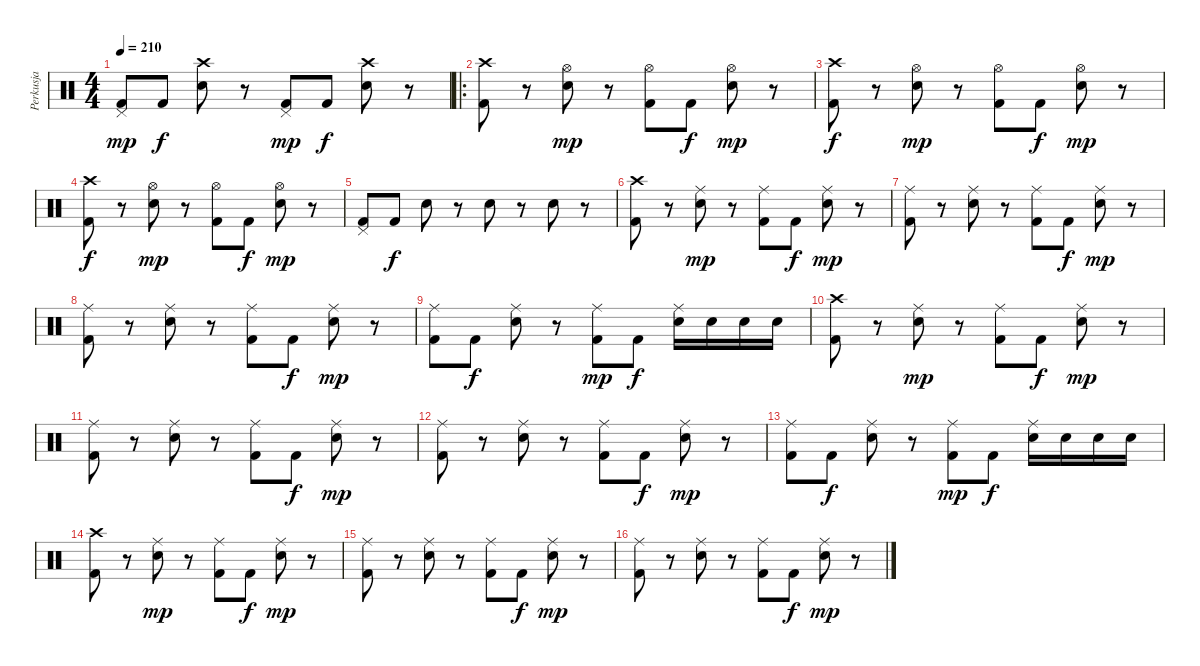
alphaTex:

\track ("Perkusja" "Perkusja") {instrument percussion}
\staff {score}
\articulation defaults
\ts (4 4)
\tempo 210
\clef neutral
\ks c
("Pedal Hi-Hat (hit)" "Kick (hit) 2").8{dy mp} "Kick (hit) 2".8{dy f} ("Crash high (hit)" "Snare (hit) 2").8 r.8 ("Pedal Hi-Hat (hit)" "Kick (hit) 2").8{dy mp} "Kick (hit) 2".8{dy f} ("Crash high (hit)" "Snare (hit) 2").8 r.8 |
\ro
("Crash high (hit)" "Kick (hit) 2").8 r.8 ("Hi-Hat (open)" "Snare (hit) 2").8{dy mp} r.8 ("Hi-Hat (open)" "Kick (hit) 2").8 "Kick (hit) 2".8{dy f} ("Hi-Hat (open)" "Snare (hit) 2").8{dy mp} r.8 |
("Crash high (hit)" "Kick (hit) 2").8{dy f} r.8 ("Hi-Hat (open)" "Snare (hit) 2").8{dy mp} r.8 ("Hi-Hat (open)" "Kick (hit) 2").8 "Kick (hit) 2".8{dy f} ("Hi-Hat (open)" "Snare (hit) 2").8{dy mp} r.8 |
("Crash high (hit)" "Kick (hit) 2").8{dy f} r.8 ("Hi-Hat (open)" "Snare (hit) 2").8{dy mp} r.8 ("Hi-Hat (open)" "Kick (hit) 2").8 "Kick (hit) 2".8{dy f} ("Hi-Hat (open)" "Snare (hit) 2").8{dy mp} r.8 |
("Pedal Hi-Hat (hit)" "Kick (hit) 2").8 "Kick (hit) 2".8{dy f} "Snare (hit) 2".8 r.8 "Snare (hit) 2".8 r.8 "Snare (hit) 2".8 r.8 |
("Crash high (hit)" "Kick (hit) 2").8 r.8 ("Ride (middle)" "Snare (hit) 2").8{dy mp} r.8 ("Ride (middle)" "Kick (hit) 2").8 "Kick (hit) 2".8{dy f} ("Ride (middle)" "Snare (hit) 2").8{dy mp} r.8 |
("Ride (middle)" "Kick (hit) 2").8 r.8 ("Ride (middle)" "Snare (hit) 2").8 r.8 ("Ride (middle)" "Kick (hit) 2").8 "Kick (hit) 2".8{dy f} ("Ride (middle)" "Snare (hit) 2").8{dy mp} r.8 |
("Ride (middle)" "Kick (hit) 2").8 r.8 ("Ride (middle)" "Snare (hit) 2").8 r.8 ("Ride (middle)" "Kick (hit) 2").8 "Kick (hit) 2".8{dy f} ("Ride (middle)" "Snare (hit) 2").8{dy mp} r.8 |
("Ride (middle)" "Kick (hit) 2").8 "Kick (hit) 2".8{dy f} ("Ride (middle)" "Snare (hit) 2").8 r.8 ("Ride (middle)" "Kick (hit) 2").8{dy mp} "Kick (hit) 2".8{dy f} ("Ride (middle)" "Snare (hit) 2").16 "Snare (hit) 2".16 "Snare (hit) 2".16 "Snare (hit) 2".16 |
("Crash high (hit)" "Kick (hit) 2").8 r.8 ("Ride (middle)" "Snare (hit) 2").8{dy mp} r.8 ("Ride (middle)" "Kick (hit) 2").8 "Kick (hit) 2".8{dy f} ("Ride (middle)" "Snare (hit) 2").8{dy mp} r.8 |
("Ride (middle)" "Kick (hit) 2").8 r.8 ("Ride (middle)" "Snare (hit) 2").8 r.8 ("Ride (middle)" "Kick (hit) 2").8 "Kick (hit) 2".8{dy f} ("Ride (middle)" "Snare (hit) 2").8{dy mp} r.8 |
("Ride (middle)" "Kick (hit) 2").8 r.8 ("Ride (middle)" "Snare (hit) 2").8 r.8 ("Ride (middle)" "Kick (hit) 2").8 "Kick (hit) 2".8{dy f} ("Ride (middle)" "Snare (hit) 2").8{dy mp} r.8 |
("Ride (middle)" "Kick (hit) 2").8 "Kick (hit) 2".8{dy f} ("Ride (middle)" "Snare (hit) 2").8 r.8 ("Ride (middle)" "Kick (hit) 2").8{dy mp} "Kick (hit) 2".8{dy f} ("Ride (middle)" "Snare (hit) 2").16 "Snare (hit) 2".16 "Snare (hit) 2".16 "Snare (hit) 2".16 |
("Crash high (hit)" "Kick (hit) 2").8 r.8 ("Ride (middle)" "Snare (hit) 2").8{dy mp} r.8 ("Ride (middle)" "Kick (hit) 2").8 "Kick (hit) 2".8{dy f} ("Ride (middle)" "Snare (hit) 2").8{dy mp} r.8 |
("Ride (middle)" "Kick (hit) 2").8 r.8 ("Ride (middle)" "Snare (hit) 2").8 r.8 ("Ride (middle)" "Kick (hit) 2").8 "Kick (hit) 2".8{dy f} ("Ride (middle)" "Snare (hit) 2").8{dy mp} r.8 |
("Ride (middle)" "Kick (hit) 2").8 r.8 ("Ride (middle)" "Snare (hit) 2").8 r.8 ("Ride (middle)" "Kick (hit) 2").8 "Kick (hit) 2".8{dy f} ("Ride (middle)" "Snare (hit) 2").8{dy mp} r.8
